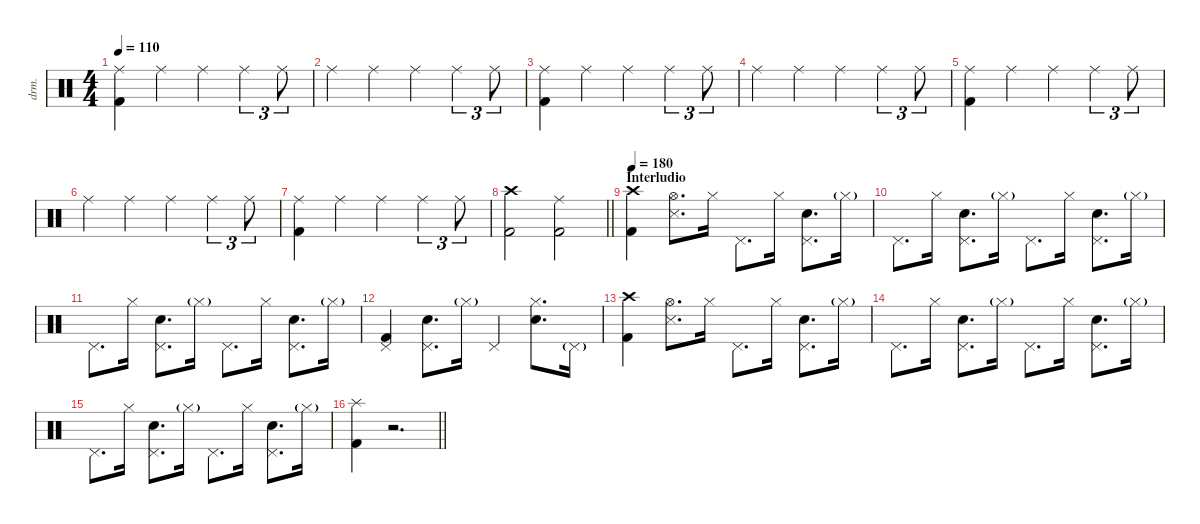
\defaultSystemsLayout 4
\hideDynamics
\bracketExtendMode nobrackets
\otherSystemsTrackNameOrientation horizontal
\track ("Drums" "drm.") {instrument percussion}
\staff {score}
\articulation defaults
\ts (4 4)
\tempo 110
\clef neutral
\ks c
("Ride (middle)" "Kick (hit) 2").4{dy f} "Ride (middle)".4{dy mp} "Ride (middle)".4 "Ride (middle)".4{tu (3 2)} "Ride (middle)".8{tu (3 2)} |
"Ride (middle)".4 "Ride (middle)".4 "Ride (middle)".4 "Ride (middle)".4{tu (3 2)} "Ride (middle)".8{tu (3 2)} |
("Ride (middle)" "Kick (hit) 2").4{dy f} "Ride (middle)".4{dy mp} "Ride (middle)".4 "Ride (middle)".4{tu (3 2)} "Ride (middle)".8{tu (3 2)} |
"Ride (middle)".4 "Ride (middle)".4 "Ride (middle)".4 "Ride (middle)".4{tu (3 2)} "Ride (middle)".8{tu (3 2)} |
("Ride (middle)" "Kick (hit) 2").4{dy f} "Ride (middle)".4{dy mp} "Ride (middle)".4 "Ride (middle)".4{tu (3 2)} "Ride (middle)".8{tu (3 2)} |
"Ride (middle)".4 "Ride (middle)".4 "Ride (middle)".4 "Ride (middle)".4{tu (3 2)} "Ride (middle)".8{tu (3 2)} |
("Ride (middle)" "Kick (hit) 2").4{dy f} "Ride (middle)".4{dy mp} "Ride (middle)".4 "Ride (middle)".4{tu (3 2)} "Ride (middle)".8{tu (3 2)} |
\barLineRight lightlight
("Crash high (hit)" "Kick (hit) 2").2{dy f} ("Ride (middle)" "Kick (hit) 2").2 |
\section ("" "Interludio")
\tempo 180
("Crash high (hit)" "Kick (hit) 2").4 ("Hi-Hat (open)" "Snare (side stick) 3").8{d} "Hi-Hat (closed)".16 "Pedal Hi-Hat (hit)".8{d} "Hi-Hat (closed)".16 ("Pedal Hi-Hat (hit)" "Snare (hit) 2").8{d} "Hi-Hat (closed)"{g}.16{dy mf} |
"Pedal Hi-Hat (hit)".8{d dy f} "Hi-Hat (closed)".16 ("Pedal Hi-Hat (hit)" "Snare (hit) 2").8{d} "Hi-Hat (closed)"{g}.16{dy mf} "Pedal Hi-Hat (hit)".8{d dy f} "Hi-Hat (closed)".16 ("Pedal Hi-Hat (hit)" "Snare (hit) 2").8{d} "Hi-Hat (closed)"{g}.16{dy mf} |
"Pedal Hi-Hat (hit)".8{d dy f} "Hi-Hat (closed)".16 ("Pedal Hi-Hat (hit)" "Snare (hit) 2").8{d} "Hi-Hat (closed)"{g}.16{dy mf} "Pedal Hi-Hat (hit)".8{d dy f} "Hi-Hat (closed)".16 ("Pedal Hi-Hat (hit)" "Snare (hit) 2").8{d} "Hi-Hat (closed)"{g}.16{dy mf} |
("Pedal Hi-Hat (hit)" "Kick (hit) 2").4{dy f} ("Pedal Hi-Hat (hit)" "Snare (hit) 2").8{d} "Hi-Hat (closed)"{g}.16{dy mf} "Pedal Hi-Hat (hit)".4{dy f} ("Hi-Hat (closed)" "Snare (hit) 2").8{d} "Pedal Hi-Hat (hit)"{g}.16{dy mf} |
("Crash high (hit)" "Kick (hit) 2").4{dy f} ("Hi-Hat (open)" "Snare (side stick) 3").8{d} "Hi-Hat (closed)".16 "Pedal Hi-Hat (hit)".8{d} "Hi-Hat (closed)".16 ("Pedal Hi-Hat (hit)" "Snare (hit) 2").8{d} "Hi-Hat (closed)"{g}.16{dy mf} |
"Pedal Hi-Hat (hit)".8{d dy f} "Hi-Hat (closed)".16 ("Pedal Hi-Hat (hit)" "Snare (hit) 2").8{d} "Hi-Hat (closed)"{g}.16{dy mf} "Pedal Hi-Hat (hit)".8{d dy f} "Hi-Hat (closed)".16 ("Pedal Hi-Hat (hit)" "Snare (hit) 2").8{d} "Hi-Hat (closed)"{g}.16{dy mf} |
"Pedal Hi-Hat (hit)".8{d dy f} "Hi-Hat (closed)".16 ("Pedal Hi-Hat (hit)" "Snare (hit) 2").8{d} "Hi-Hat (closed)"{g}.16{dy mf} "Pedal Hi-Hat (hit)".8{d dy f} "Hi-Hat (closed)".16 ("Pedal Hi-Hat (hit)" "Snare (hit) 2").8{d} "Hi-Hat (closed)"{g}.16{dy mf} |
\barLineRight lightlight
("Splash (hit)" "Kick (hit) 2").4{dy f} r.2{d}
